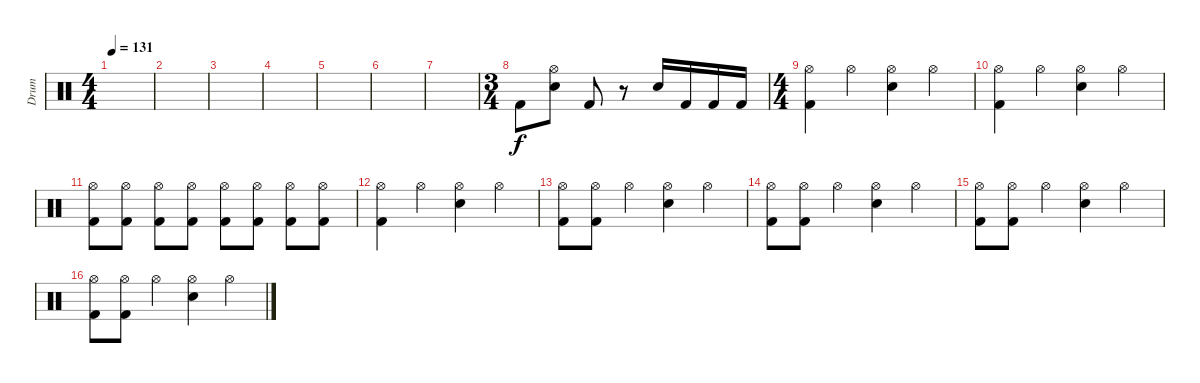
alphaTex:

\track ("Drum" "Drum") {instrument percussion}
\staff {score}
\articulation defaults
\ts (4 4)
\tempo 131
\clef neutral
\ks c
|
|
|
|
|
|
|
\ts (3 4)
"Kick (hit) 2".8 ("Snare (hit) 2" "Hi-Hat (open)").8 "Kick (hit) 2".8 r.8 "Snare (hit) 2".16 "Kick (hit) 2".16 "Kick (hit) 2".16 "Kick (hit) 2".16 |
\ts (4 4)
("Hi-Hat (open)" "Kick (hit) 2").4 "Hi-Hat (open)".4 ("Hi-Hat (open)" "Snare (hit) 2").4 "Hi-Hat (open)".4 |
("Hi-Hat (open)" "Kick (hit) 2").4 "Hi-Hat (open)".4 ("Hi-Hat (open)" "Snare (hit) 2").4 "Hi-Hat (open)".4 |
("Hi-Hat (open)" "Kick (hit) 2").8 ("Hi-Hat (open)" "Kick (hit) 2").8 ("Hi-Hat (open)" "Kick (hit) 2").8 ("Hi-Hat (open)" "Kick (hit) 2").8 ("Hi-Hat (open)" "Kick (hit) 2").8 ("Hi-Hat (open)" "Kick (hit) 2").8 ("Hi-Hat (open)" "Kick (hit) 2").8 ("Hi-Hat (open)" "Kick (hit) 2").8 |
("Hi-Hat (open)" "Kick (hit) 2").4 "Hi-Hat (open)".4 ("Hi-Hat (open)" "Snare (hit) 2").4 "Hi-Hat (open)".4 |
("Hi-Hat (open)" "Kick (hit) 2").8 ("Hi-Hat (open)" "Kick (hit) 2").8 "Hi-Hat (open)".4 ("Hi-Hat (open)" "Snare (hit) 2").4 "Hi-Hat (open)".4 |
("Hi-Hat (open)" "Kick (hit) 2").8 ("Hi-Hat (open)" "Kick (hit) 2").8 "Hi-Hat (open)".4 ("Hi-Hat (open)" "Snare (hit) 2").4 "Hi-Hat (open)".4 |
("Hi-Hat (open)" "Kick (hit) 2").8 ("Hi-Hat (open)" "Kick (hit) 2").8 "Hi-Hat (open)".4 ("Hi-Hat (open)" "Snare (hit) 2").4 "Hi-Hat (open)".4 |
("Hi-Hat (open)" "Kick (hit) 2").8 ("Hi-Hat (open)" "Kick (hit) 2").8 "Hi-Hat (open)".4 ("Hi-Hat (open)" "Snare (hit) 2").4 "Hi-Hat (open)".4
